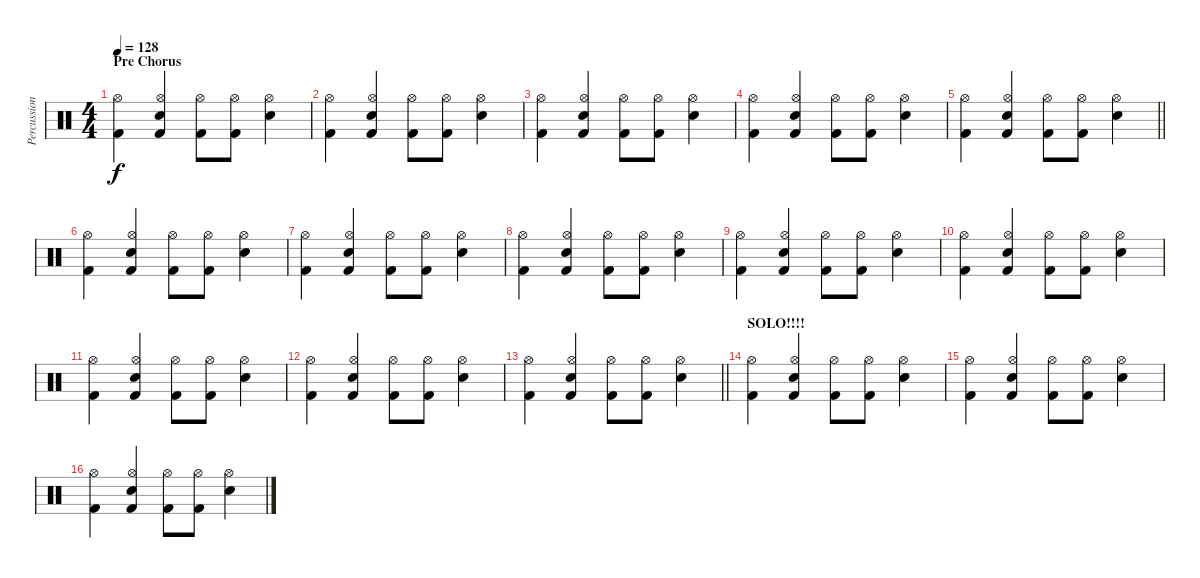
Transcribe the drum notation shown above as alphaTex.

\track ("Percussion" "Percussion") {instrument percussion}
\staff {score}
\articulation defaults
\ts (4 4)
\section ("" "Pre Chorus")
\tempo 128
\clef neutral
\ks c
("Kick (hit) 2" "Hi-Hat (open)").4{dy f} ("Kick (hit) 2" "Snare (hit) 2" "Hi-Hat (open)").4 ("Kick (hit) 2" "Hi-Hat (open)").8 ("Kick (hit) 2" "Hi-Hat (open)").8 ("Snare (hit) 2" "Hi-Hat (open)").4 |
("Kick (hit) 2" "Hi-Hat (open)").4 ("Kick (hit) 2" "Snare (hit) 2" "Hi-Hat (open)").4 ("Kick (hit) 2" "Hi-Hat (open)").8 ("Kick (hit) 2" "Hi-Hat (open)").8 ("Snare (hit) 2" "Hi-Hat (open)").4 |
("Kick (hit) 2" "Hi-Hat (open)").4 ("Kick (hit) 2" "Snare (hit) 2" "Hi-Hat (open)").4 ("Kick (hit) 2" "Hi-Hat (open)").8 ("Kick (hit) 2" "Hi-Hat (open)").8 ("Snare (hit) 2" "Hi-Hat (open)").4 |
("Kick (hit) 2" "Hi-Hat (open)").4 ("Kick (hit) 2" "Snare (hit) 2" "Hi-Hat (open)").4 ("Kick (hit) 2" "Hi-Hat (open)").8 ("Kick (hit) 2" "Hi-Hat (open)").8 ("Snare (hit) 2" "Hi-Hat (open)").4 |
\barLineRight lightlight
("Kick (hit) 2" "Hi-Hat (open)").4 ("Kick (hit) 2" "Snare (hit) 2" "Hi-Hat (open)").4 ("Kick (hit) 2" "Hi-Hat (open)").8 ("Kick (hit) 2" "Hi-Hat (open)").8 ("Snare (hit) 2" "Hi-Hat (open)").4 |
("Kick (hit) 2" "Hi-Hat (open)").4 ("Kick (hit) 2" "Snare (hit) 2" "Hi-Hat (open)").4 ("Kick (hit) 2" "Hi-Hat (open)").8 ("Kick (hit) 2" "Hi-Hat (open)").8 ("Snare (hit) 2" "Hi-Hat (open)").4 |
("Kick (hit) 2" "Hi-Hat (open)").4 ("Kick (hit) 2" "Snare (hit) 2" "Hi-Hat (open)").4 ("Kick (hit) 2" "Hi-Hat (open)").8 ("Kick (hit) 2" "Hi-Hat (open)").8 ("Snare (hit) 2" "Hi-Hat (open)").4 |
("Kick (hit) 2" "Hi-Hat (open)").4 ("Kick (hit) 2" "Snare (hit) 2" "Hi-Hat (open)").4 ("Kick (hit) 2" "Hi-Hat (open)").8 ("Kick (hit) 2" "Hi-Hat (open)").8 ("Snare (hit) 2" "Hi-Hat (open)").4 |
("Kick (hit) 2" "Hi-Hat (open)").4 ("Kick (hit) 2" "Snare (hit) 2" "Hi-Hat (open)").4 ("Kick (hit) 2" "Hi-Hat (open)").8 ("Kick (hit) 2" "Hi-Hat (open)").8 ("Snare (hit) 2" "Hi-Hat (open)").4 |
("Kick (hit) 2" "Hi-Hat (open)").4 ("Kick (hit) 2" "Snare (hit) 2" "Hi-Hat (open)").4 ("Kick (hit) 2" "Hi-Hat (open)").8 ("Kick (hit) 2" "Hi-Hat (open)").8 ("Snare (hit) 2" "Hi-Hat (open)").4 |
("Kick (hit) 2" "Hi-Hat (open)").4 ("Kick (hit) 2" "Snare (hit) 2" "Hi-Hat (open)").4 ("Kick (hit) 2" "Hi-Hat (open)").8 ("Kick (hit) 2" "Hi-Hat (open)").8 ("Snare (hit) 2" "Hi-Hat (open)").4 |
("Kick (hit) 2" "Hi-Hat (open)").4 ("Kick (hit) 2" "Snare (hit) 2" "Hi-Hat (open)").4 ("Kick (hit) 2" "Hi-Hat (open)").8 ("Kick (hit) 2" "Hi-Hat (open)").8 ("Snare (hit) 2" "Hi-Hat (open)").4 |
\barLineRight lightlight
("Kick (hit) 2" "Hi-Hat (open)").4 ("Kick (hit) 2" "Snare (hit) 2" "Hi-Hat (open)").4 ("Kick (hit) 2" "Hi-Hat (open)").8 ("Kick (hit) 2" "Hi-Hat (open)").8 ("Snare (hit) 2" "Hi-Hat (open)").4 |
\section ("" "SOLO!!!!")
("Kick (hit) 2" "Hi-Hat (open)").4 ("Kick (hit) 2" "Snare (hit) 2" "Hi-Hat (open)").4 ("Kick (hit) 2" "Hi-Hat (open)").8 ("Kick (hit) 2" "Hi-Hat (open)").8 ("Snare (hit) 2" "Hi-Hat (open)").4 |
("Kick (hit) 2" "Hi-Hat (open)").4 ("Kick (hit) 2" "Snare (hit) 2" "Hi-Hat (open)").4 ("Kick (hit) 2" "Hi-Hat (open)").8 ("Kick (hit) 2" "Hi-Hat (open)").8 ("Snare (hit) 2" "Hi-Hat (open)").4 |
("Kick (hit) 2" "Hi-Hat (open)").4 ("Kick (hit) 2" "Snare (hit) 2" "Hi-Hat (open)").4 ("Kick (hit) 2" "Hi-Hat (open)").8 ("Kick (hit) 2" "Hi-Hat (open)").8 ("Snare (hit) 2" "Hi-Hat (open)").4
